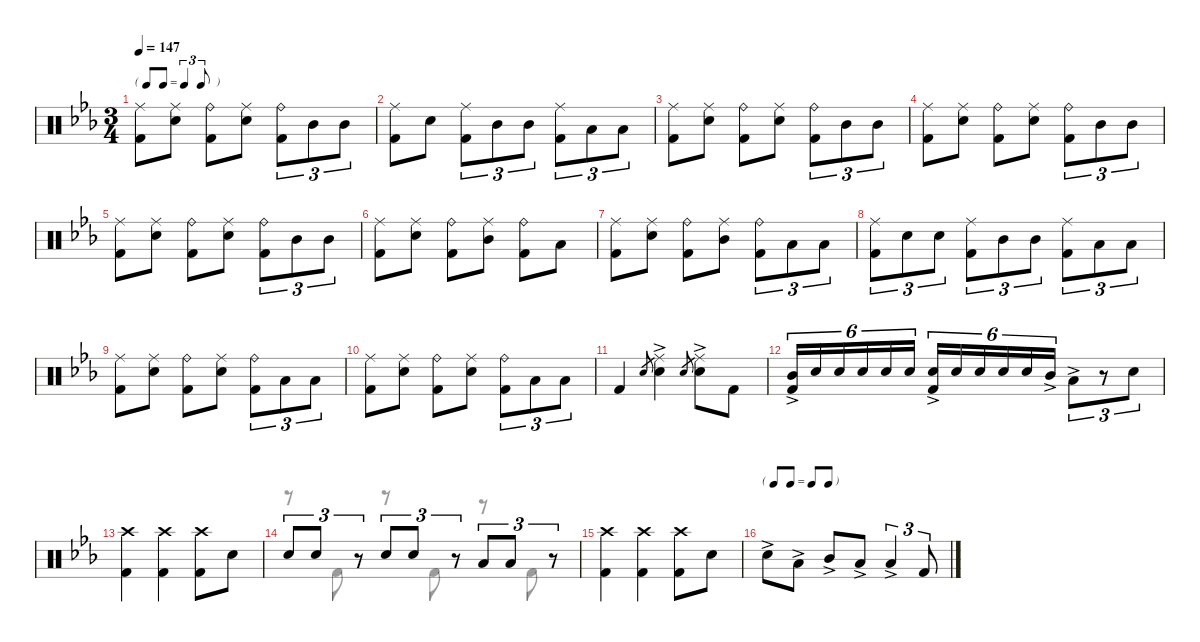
\defaultSystemsLayout 4
\hideDynamics
\bracketExtendMode nobrackets
\singleTrackTrackNamePolicy hidden
\multiTrackTrackNamePolicy hidden
\firstSystemTrackNameMode fullname
\firstSystemTrackNameOrientation horizontal
\otherSystemsTrackNameOrientation horizontal
\track ("Percussion" "drm.") {defaultSystemsLayout 8 instrument percussion}
\staff {score}
\articulation defaults
\voice
\ts (3 4)
\tf triplet8th
\tempo 147
\clef neutral
\ks eb
("Ride (middle)"{acc forcenatural} "Kick (hit) 2"{acc forcenatural}).8{dy f beam Down} ("Ride (middle)"{acc forcenatural} "Snare (hit) 2"{acc forcenatural}).8{beam Down} ("Ride (bell)"{acc forcenatural} "Kick (hit) 2"{acc forcenatural}).8{beam Down} ("Ride (middle)"{acc forcenatural} "Snare (hit) 2"{acc forcenatural}).8{beam Down} ("Ride (bell)"{acc forcenatural} "Kick (hit) 2"{acc forcenatural}).8{tu (3 2) beam Down} "Mid Tom (hit)"{acc forcenatural}.8{tu (3 2) beam Down} "Mid Tom (hit)"{acc forcenatural}.8{tu (3 2) beam Down} |
("Ride (middle)"{acc forcenatural} "Kick (hit) 2"{acc forcenatural}).8{beam Down} "Snare (hit) 2"{acc forcenatural}.8{beam Down} ("Ride (middle)"{acc forcenatural} "Kick (hit) 2"{acc forcenatural}).8{tu (3 2) beam Down} "Mid Tom (hit)"{acc forcenatural}.8{tu (3 2) beam Down} "Mid Tom (hit)"{acc forcenatural}.8{tu (3 2) beam Down} ("Ride (middle)"{acc forcenatural} "Kick (hit) 2"{acc forcenatural}).8{tu (3 2) beam Down} "Low Tom (hit)"{acc forcenatural}.8{tu (3 2) beam Down} "Low Tom (hit)"{acc forcenatural}.8{tu (3 2) beam Down} |
("Ride (middle)"{acc forcenatural} "Kick (hit) 2"{acc forcenatural}).8{beam Down} ("Ride (middle)"{acc forcenatural} "Snare (hit) 2"{acc forcenatural}).8{beam Down} ("Ride (bell)"{acc forcenatural} "Kick (hit) 2"{acc forcenatural}).8{beam Down} ("Ride (middle)"{acc forcenatural} "Snare (hit) 2"{acc forcenatural}).8{beam Down} ("Ride (bell)"{acc forcenatural} "Kick (hit) 2"{acc forcenatural}).8{tu (3 2) beam Down} "Mid Tom (hit)"{acc forcenatural}.8{tu (3 2) beam Down} "Mid Tom (hit)"{acc forcenatural}.8{tu (3 2) beam Down} |
("Ride (middle)"{acc forcenatural} "Kick (hit) 2"{acc forcenatural}).8{beam Down} ("Ride (middle)"{acc forcenatural} "Snare (hit) 2"{acc forcenatural}).8{beam Down} ("Ride (bell)"{acc forcenatural} "Kick (hit) 2"{acc forcenatural}).8{beam Down} ("Ride (middle)"{acc forcenatural} "Snare (hit) 2"{acc forcenatural}).8{beam Down} ("Ride (bell)"{acc forcenatural} "Kick (hit) 2"{acc forcenatural}).8{tu (3 2) beam Down} "Mid Tom (hit)"{acc forcenatural}.8{tu (3 2) beam Down} "Mid Tom (hit)"{acc forcenatural}.8{tu (3 2) beam Down} |
("Ride (middle)"{acc forcenatural} "Kick (hit) 2"{acc forcenatural}).8{beam Down} ("Ride (middle)"{acc forcenatural} "Snare (hit) 2"{acc forcenatural}).8{beam Down} ("Ride (bell)"{acc forcenatural} "Kick (hit) 2"{acc forcenatural}).8{beam Down} ("Ride (middle)"{acc forcenatural} "Snare (hit) 2"{acc forcenatural}).8{beam Down} ("Ride (bell)"{acc forcenatural} "Kick (hit) 2"{acc forcenatural}).8{tu (3 2) beam Down} "Mid Tom (hit)"{acc forcenatural}.8{tu (3 2) beam Down} "Mid Tom (hit)"{acc forcenatural}.8{tu (3 2) beam Down} |
("Ride (middle)"{acc forcenatural} "Kick (hit) 2"{acc forcenatural}).8{beam Down} ("Ride (middle)"{acc forcenatural} "Snare (hit) 2"{acc forcenatural}).8{beam Down} ("Ride (bell)"{acc forcenatural} "Kick (hit) 2"{acc forcenatural}).8{beam Down} ("Ride (middle)"{acc forcenatural} "Mid Tom (hit)"{acc forcenatural}).8{beam Down} ("Ride (bell)"{acc forcenatural} "Kick (hit) 2"{acc forcenatural}).8{beam Down} "Low Tom (hit)"{acc forcenatural}.8{beam Down} |
("Ride (middle)"{acc forcenatural} "Kick (hit) 2"{acc forcenatural}).8{beam Down} ("Ride (middle)"{acc forcenatural} "Snare (hit) 2"{acc forcenatural}).8{beam Down} ("Ride (bell)"{acc forcenatural} "Kick (hit) 2"{acc forcenatural}).8{beam Down} ("Ride (middle)"{acc forcenatural} "Mid Tom (hit)"{acc forcenatural}).8{beam Down} ("Ride (bell)"{acc forcenatural} "Kick (hit) 2"{acc forcenatural}).8{tu (3 2) beam Down} "Low Tom (hit)"{acc forcenatural}.8{tu (3 2) beam Down} "Low Tom (hit)"{acc forcenatural}.8{tu (3 2) beam Down} |
("Ride (middle)"{acc forcenatural} "Kick (hit) 2"{acc forcenatural}).8{tu (3 2) beam Down} "Snare (hit) 2"{acc forcenatural}.8{tu (3 2) beam Down} "Snare (hit) 2"{acc forcenatural}.8{tu (3 2) beam Down} ("Ride (middle)"{acc forcenatural} "Kick (hit) 2"{acc forcenatural}).8{tu (3 2) beam Down} "Mid Tom (hit)"{acc forcenatural}.8{tu (3 2) beam Down} "Mid Tom (hit)"{acc forcenatural}.8{tu (3 2) beam Down} ("Ride (middle)"{acc forcenatural} "Kick (hit) 2"{acc forcenatural}).8{tu (3 2) beam Down} "Low Tom (hit)"{acc forcenatural}.8{tu (3 2) beam Down} "Low Tom (hit)"{acc forcenatural}.8{tu (3 2) beam Down} |
("Ride (middle)"{acc forcenatural} "Kick (hit) 2"{acc forcenatural}).8{beam Down} ("Ride (middle)"{acc forcenatural} "Snare (hit) 2"{acc forcenatural}).8{beam Down} ("Ride (bell)"{acc forcenatural} "Kick (hit) 2"{acc forcenatural}).8{beam Down} ("Ride (middle)"{acc forcenatural} "Snare (hit) 2"{acc forcenatural}).8{beam Down} ("Ride (bell)"{acc forcenatural} "Kick (hit) 2"{acc forcenatural}).8{tu (3 2) beam Down} "Low Floor Tom (hit)"{acc forcenatural}.8{tu (3 2) beam Down} "Low Floor Tom (hit)"{acc forcenatural}.8{tu (3 2) beam Down} |
("Ride (middle)"{acc forcenatural} "Kick (hit) 2"{acc forcenatural}).8{beam Down} ("Ride (middle)"{acc forcenatural} "Snare (hit) 2"{acc forcenatural}).8{beam Down} ("Ride (bell)"{acc forcenatural} "Kick (hit) 2"{acc forcenatural}).8{beam Down} ("Ride (middle)"{acc forcenatural} "Snare (hit) 2"{acc forcenatural}).8{beam Down} ("Ride (bell)"{acc forcenatural} "Kick (hit) 2"{acc forcenatural}).8{tu (3 2) beam Down} "Low Floor Tom (hit)"{acc forcenatural}.8{tu (3 2) beam Down} "Low Floor Tom (hit)"{acc forcenatural}.8{tu (3 2) beam Down} |
"Kick (hit) 2"{acc forcenatural}.4{beam Up} "Snare (hit) 2"{acc forcenatural}.8{gr dy mf beam Up} ("Ride (middle)"{acc forcenatural} "Snare (hit) 2"{ac acc forcenatural}).4{dy f beam Down} "Snare (hit) 2"{acc forcenatural}.8{gr dy mf beam Up} ("Ride (middle)"{acc forcenatural} "Snare (hit) 2"{ac acc forcenatural}).8{dy f beam Down} "Kick (hit) 2"{acc forcenatural}.8{beam Down} |
("Mid Tom (hit)"{ac acc forcenatural} "Kick (hit) 2"{acc forcenatural}).16{tu (6 4) beam Up} "Snare (hit) 2"{acc forcenatural}.16{tu (6 4) beam Up} "Snare (hit) 2"{acc forcenatural}.16{tu (6 4) beam Up} "Snare (hit) 2"{acc forcenatural}.16{tu (6 4) beam Up} "Snare (hit) 2"{acc forcenatural}.16{tu (6 4) beam Up} "Snare (hit) 2"{acc forcenatural}.16{tu (6 4) beam Up} ("Snare (hit) 2"{ac acc forcenatural} "Kick (hit) 2"{acc forcenatural}).16{tu (6 4) beam Up} "Snare (hit) 2"{acc forcenatural}.16{tu (6 4) beam Up} "Snare (hit) 2"{acc forcenatural}.16{tu (6 4) beam Up} "Snare (hit) 2"{acc forcenatural}.16{tu (6 4) beam Up} "Snare (hit) 2"{acc forcenatural}.16{tu (6 4) beam Up} "Mid Tom (hit)"{ac acc forcenatural}.16{tu (6 4) beam Up} "Low Tom (hit)"{ac acc forcenatural}.8{tu (3 2) beam Down} r.8{tu (3 2) beam Down} "Snare (hit) 2"{acc forcenatural}.8{tu (3 2) beam Down} |
("Crash high (hit)"{acc forcenatural} "Kick (hit) 2"{acc forcenatural}).4{beam Down} ("Crash high (hit)"{acc forcenatural} "Kick (hit) 2"{acc forcenatural}).4{beam Down} ("Crash high (hit)"{acc forcenatural} "Kick (hit) 2"{acc forcenatural}).8{beam Down} "Snare (hit) 2"{acc forcenatural}.8{beam Down} |
"Snare (hit) 2"{acc forcenatural}.8{tu (3 2) beam Up} "Snare (hit) 2"{acc forcenatural}.8{tu (3 2) beam Up} r.8{tu (3 2) beam Up} "Snare (hit) 2"{acc forcenatural}.8{tu (3 2) beam Up} "Snare (hit) 2"{acc forcenatural}.8{tu (3 2) beam Up} r.8{tu (3 2) beam Up} "Low Floor Tom (hit)"{acc forcenatural}.8{tu (3 2) beam Up} "Low Tom (hit)"{acc forcenatural}.8{tu (3 2) beam Up} r.8{tu (3 2) beam Up} |
("Crash high (hit)"{acc forcenatural} "Kick (hit) 2"{acc forcenatural}).4{beam Down} ("Crash high (hit)"{acc forcenatural} "Kick (hit) 2"{acc forcenatural}).4{beam Down} ("Crash high (hit)"{acc forcenatural} "Kick (hit) 2"{acc forcenatural}).8{beam Down} "Snare (hit) 2"{acc forcenatural}.8{beam Down} |
\tf none "Snare (hit) 2"{ac acc forcenatural}.8{beam Down} "Low Tom (hit)"{ac acc forcenatural}.8{beam Down} "Mid Tom (hit)"{ac acc forcenatural}.8{beam Up} "Low Floor Tom (hit)"{ac acc forcenatural}.8{beam Up} "Low Floor Tom (hit)"{ac acc forcenatural}.4{tu (3 2) beam Up} "Kick (hit) 2"{acc forcenatural}.8{tu (3 2) beam Up}
\voice
\clef neutral
\ottava regular
\simile none
\ks eb
|
|
|
|
|
|
|
|
|
|
|
|
|
r.8{beam Down} "Kick (hit) 2"{acc forcenatural}.8{beam Down} r.8{beam Down} "Kick (hit) 2"{acc forcenatural}.8{beam Down} r.8{beam Down} "Kick (hit) 2"{acc forcenatural}.8{beam Down} |
|
